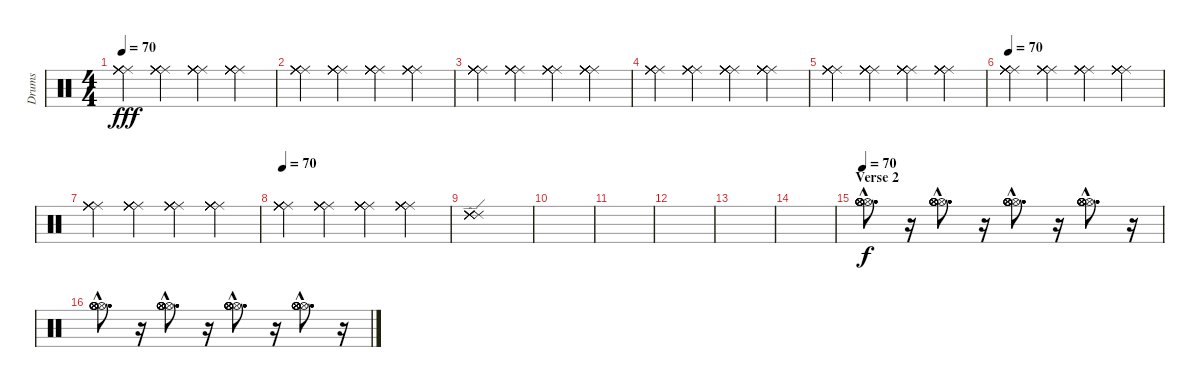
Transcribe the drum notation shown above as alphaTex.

\track ("Drums" "Drums") {instrument percussion}
\staff {score}
\articulation defaults
\ts (4 4)
\tempo 70
\clef neutral
\ks c
("Ride (middle)" "Ride (middle)" "Ride (middle)" "Ride (middle)" "Ride (middle)" "Ride (middle)").4{dy fff} ("Ride (middle)" "Ride (middle)" "Ride (middle)" "Ride (middle)" "Ride (middle)" "Ride (middle)").4 ("Ride (middle)" "Ride (middle)" "Ride (middle)" "Ride (middle)" "Ride (middle)" "Ride (middle)").4 ("Ride (middle)" "Ride (middle)" "Ride (middle)" "Ride (middle)" "Ride (middle)" "Ride (middle)").4 |
("Ride (middle)" "Ride (middle)" "Ride (middle)" "Ride (middle)" "Ride (middle)" "Ride (middle)").4 ("Ride (middle)" "Ride (middle)" "Ride (middle)" "Ride (middle)" "Ride (middle)" "Ride (middle)").4 ("Ride (middle)" "Ride (middle)" "Ride (middle)" "Ride (middle)" "Ride (middle)" "Ride (middle)").4 ("Ride (middle)" "Ride (middle)" "Ride (middle)" "Ride (middle)" "Ride (middle)" "Ride (middle)").4 |
("Ride (middle)" "Ride (middle)" "Ride (middle)" "Ride (middle)" "Ride (middle)" "Ride (middle)").4 ("Ride (middle)" "Ride (middle)" "Ride (middle)" "Ride (middle)" "Ride (middle)" "Ride (middle)").4 ("Ride (middle)" "Ride (middle)" "Ride (middle)" "Ride (middle)" "Ride (middle)" "Ride (middle)").4 ("Ride (middle)" "Ride (middle)" "Ride (middle)" "Ride (middle)" "Ride (middle)" "Ride (middle)").4 |
("Ride (middle)" "Ride (middle)" "Ride (middle)" "Ride (middle)" "Ride (middle)" "Ride (middle)").4 ("Ride (middle)" "Ride (middle)" "Ride (middle)" "Ride (middle)" "Ride (middle)" "Ride (middle)").4 ("Ride (middle)" "Ride (middle)" "Ride (middle)" "Ride (middle)" "Ride (middle)" "Ride (middle)").4 ("Ride (middle)" "Ride (middle)" "Ride (middle)" "Ride (middle)" "Ride (middle)" "Ride (middle)").4 |
("Ride (middle)" "Ride (middle)" "Ride (middle)" "Ride (middle)" "Ride (middle)" "Ride (middle)").4 ("Ride (middle)" "Ride (middle)" "Ride (middle)" "Ride (middle)" "Ride (middle)" "Ride (middle)").4 ("Ride (middle)" "Ride (middle)" "Ride (middle)" "Ride (middle)" "Ride (middle)" "Ride (middle)").4 ("Ride (middle)" "Ride (middle)" "Ride (middle)" "Ride (middle)" "Ride (middle)" "Ride (middle)").4 |
\tempo 70
("Ride (middle)" "Ride (middle)" "Ride (middle)" "Ride (middle)" "Ride (middle)" "Ride (middle)").4 ("Ride (middle)" "Ride (middle)" "Ride (middle)" "Ride (middle)" "Ride (middle)" "Ride (middle)").4 ("Ride (middle)" "Ride (middle)" "Ride (middle)" "Ride (middle)" "Ride (middle)" "Ride (middle)").4 ("Ride (middle)" "Ride (middle)" "Ride (middle)" "Ride (middle)" "Ride (middle)" "Ride (middle)").4 |
("Ride (middle)" "Ride (middle)" "Ride (middle)" "Ride (middle)" "Ride (middle)" "Ride (middle)").4 ("Ride (middle)" "Ride (middle)" "Ride (middle)" "Ride (middle)" "Ride (middle)" "Ride (middle)").4 ("Ride (middle)" "Ride (middle)" "Ride (middle)" "Ride (middle)" "Ride (middle)" "Ride (middle)").4 ("Ride (middle)" "Ride (middle)" "Ride (middle)" "Ride (middle)" "Ride (middle)" "Ride (middle)").4 |
\tempo 70
("Ride (middle)" "Ride (middle)" "Ride (middle)" "Ride (middle)" "Ride (middle)" "Ride (middle)").4 ("Ride (middle)" "Ride (middle)" "Ride (middle)" "Ride (middle)" "Ride (middle)" "Ride (middle)").4 ("Ride (middle)" "Ride (middle)" "Ride (middle)" "Ride (middle)" "Ride (middle)" "Ride (middle)").4 ("Ride (middle)" "Ride (middle)" "Ride (middle)" "Ride (middle)" "Ride (middle)" "Ride (middle)").4 |
("Ride (edge) 2" "Ride (edge) 2" "Ride (edge) 2" "Ride (edge) 2" "Ride (edge) 2" "Ride (edge) 2").1 |
|
|
|
|
|
\section ("" "Verse 2")
\tempo 70
("Hi-Hat (open)"{hac} "Hi-Hat (open)"{hac} "Hi-Hat (open)"{hac} "Hi-Hat (open)"{hac} "Hi-Hat (open)"{hac} "Hi-Hat (open)"{hac}).8{d dy f} r.16 ("Hi-Hat (open)"{hac} "Hi-Hat (open)"{hac} "Hi-Hat (open)"{hac} "Hi-Hat (open)"{hac} "Hi-Hat (open)"{hac} "Hi-Hat (open)"{hac}).8{d} r.16 ("Hi-Hat (open)"{hac} "Hi-Hat (open)"{hac} "Hi-Hat (open)"{hac} "Hi-Hat (open)"{hac} "Hi-Hat (open)"{hac} "Hi-Hat (open)"{hac}).8{d} r.16 ("Hi-Hat (open)"{hac} "Hi-Hat (open)"{hac} "Hi-Hat (open)"{hac} "Hi-Hat (open)"{hac} "Hi-Hat (open)"{hac} "Hi-Hat (open)"{hac}).8{d} r.16 |
("Hi-Hat (open)"{hac} "Hi-Hat (open)"{hac} "Hi-Hat (open)"{hac} "Hi-Hat (open)"{hac} "Hi-Hat (open)"{hac} "Hi-Hat (open)"{hac}).8{d} r.16 ("Hi-Hat (open)"{hac} "Hi-Hat (open)"{hac} "Hi-Hat (open)"{hac} "Hi-Hat (open)"{hac} "Hi-Hat (open)"{hac} "Hi-Hat (open)"{hac}).8{d} r.16 ("Hi-Hat (open)"{hac} "Hi-Hat (open)"{hac} "Hi-Hat (open)"{hac} "Hi-Hat (open)"{hac} "Hi-Hat (open)"{hac} "Hi-Hat (open)"{hac}).8{d} r.16 ("Hi-Hat (open)"{hac} "Hi-Hat (open)"{hac} "Hi-Hat (open)"{hac} "Hi-Hat (open)"{hac} "Hi-Hat (open)"{hac} "Hi-Hat (open)"{hac}).8{d} r.16
